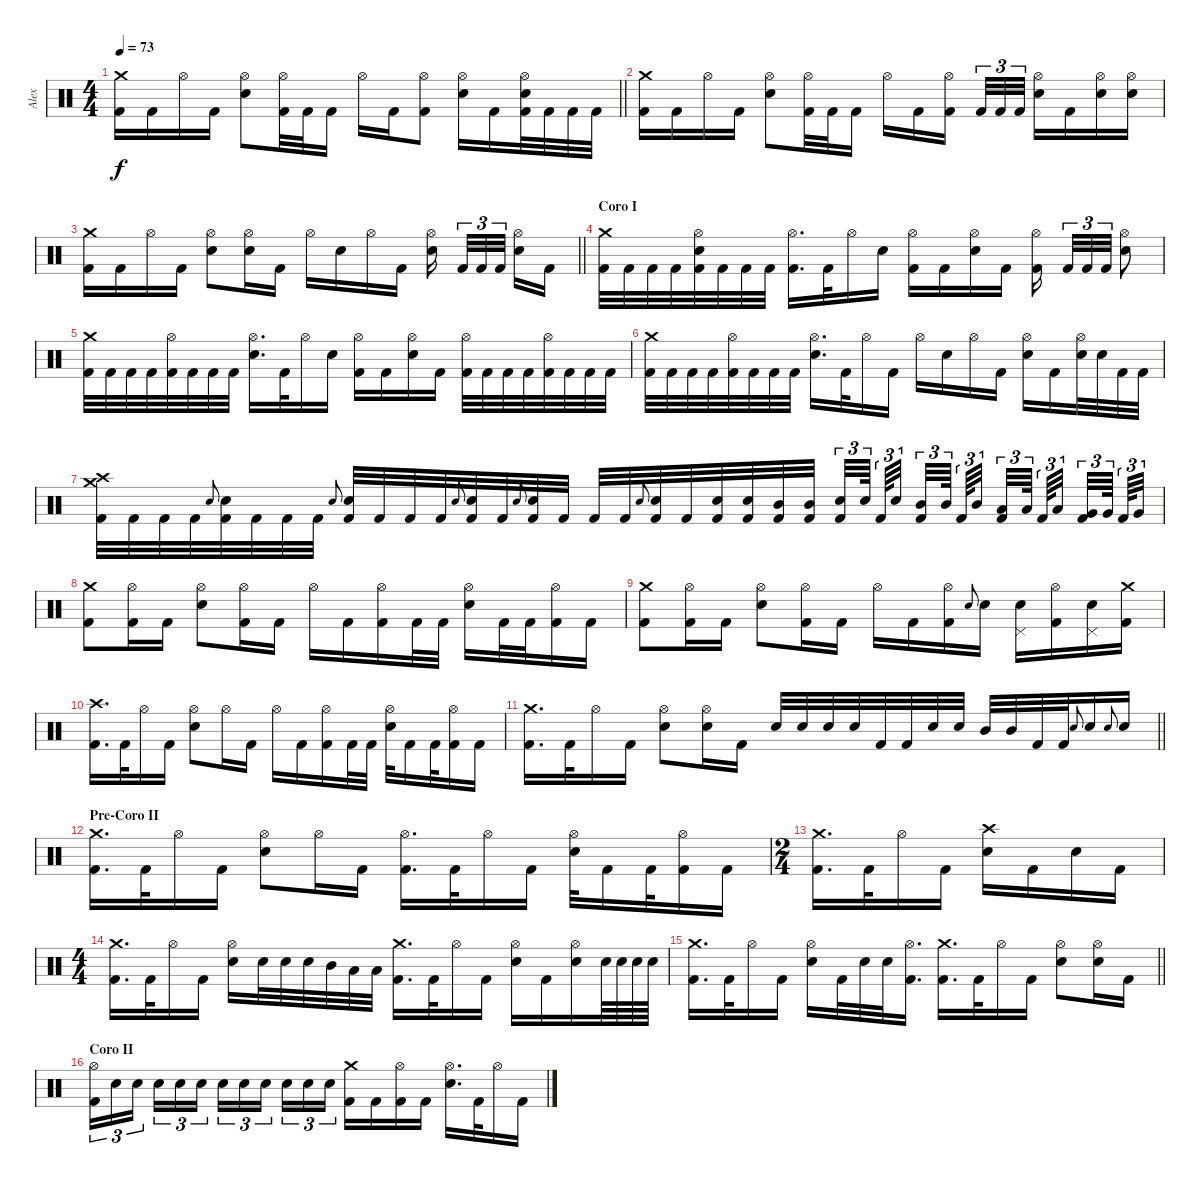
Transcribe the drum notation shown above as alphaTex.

\track ("Alex" "Alex") {instrument percussion}
\staff
\articulation defaults
\ts (4 4)
\tempo 73
\clef neutral
\barLineRight lightlight
\ks c
("Crash medium (hit)" "Kick (hit) 2").16{dy f} "Kick (hit) 2".16 "Hi-Hat (open)".16 "Kick (hit) 2".16 ("Hi-Hat (open)" "Electric Snare (hit)").8 ("Hi-Hat (open)" "Kick (hit) 2").32 "Kick (hit) 2".32 "Kick (hit) 2".16 "Hi-Hat (open)".16 "Kick (hit) 2".16 ("Hi-Hat (open)" "Kick (hit) 2").8 ("Hi-Hat (open)" "Electric Snare (hit)").16 "Kick (hit) 2".16 ("Hi-Hat (open)" "Electric Snare (hit)" "Kick (hit) 2").32 "Kick (hit) 2".32 "Kick (hit) 2".32 "Kick (hit) 2".32 |
("Crash medium (hit)" "Kick (hit) 2").16 "Kick (hit) 2".16 "Hi-Hat (open)".16 "Kick (hit) 2".16 ("Hi-Hat (open)" "Electric Snare (hit)").8 ("Hi-Hat (open)" "Kick (hit) 2").32 "Kick (hit) 2".32 "Kick (hit) 2".16 "Hi-Hat (open)".16 "Kick (hit) 2".16 ("Hi-Hat (open)" "Kick (hit) 2").16{beam splitsecondary} "Kick (hit) 2".32{tu (3 2)} "Kick (hit) 2".32{tu (3 2)} "Kick (hit) 2".32{tu (3 2)} ("Hi-Hat (open)" "Electric Snare (hit)").16 "Kick (hit) 2".16 ("Hi-Hat (open)" "Electric Snare (hit)").16 ("Hi-Hat (open)" "Electric Snare (hit)").16 |
\barLineRight lightlight
("Crash medium (hit)" "Kick (hit) 2").16 "Kick (hit) 2".16 "Hi-Hat (open)".16 "Kick (hit) 2".16 ("Hi-Hat (open)" "Electric Snare (hit)").8 ("Hi-Hat (open)" "Electric Snare (hit)").16 "Kick (hit) 2".16 "Hi-Hat (open)".16 "Electric Snare (hit)".16 "Hi-Hat (open)".16 "Kick (hit) 2".16 ("Hi-Hat (open)" "Electric Snare (hit)").16{beam splitsecondary} "Kick (hit) 2".32{tu (3 2)} "Kick (hit) 2".32{tu (3 2)} "Kick (hit) 2".32{tu (3 2) beam splitsecondary} ("Hi-Hat (open)" "Electric Snare (hit)").16 "Kick (hit) 2".16 |
\section ("" "Coro I")
("Crash medium (hit)" "Kick (hit) 2").32 "Kick (hit) 2".32 "Kick (hit) 2".32 "Kick (hit) 2".32 ("Hi-Hat (open)" "Electric Snare (hit)" "Kick (hit) 2").32 "Kick (hit) 2".32 "Kick (hit) 2".32 "Kick (hit) 2".32 ("Hi-Hat (open)" "Kick (hit) 2").16{d} "Kick (hit) 2".32 "Hi-Hat (open)".16 "Electric Snare (hit)".16 ("Hi-Hat (open)" "Kick (hit) 2").16 "Kick (hit) 2".16 ("Hi-Hat (open)" "Electric Snare (hit)").16 "Kick (hit) 2".16 ("Hi-Hat (open)" "Kick (hit) 2").16{beam splitsecondary} "Kick (hit) 2".32{tu (3 2)} "Kick (hit) 2".32{tu (3 2)} "Kick (hit) 2".32{tu (3 2)} ("Hi-Hat (open)" "Electric Snare (hit)").8 |
("Crash medium (hit)" "Kick (hit) 2").32 "Kick (hit) 2".32 "Kick (hit) 2".32 "Kick (hit) 2".32 ("Hi-Hat (open)" "Kick (hit) 2").32 "Kick (hit) 2".32 "Kick (hit) 2".32 "Kick (hit) 2".32 ("Hi-Hat (open)" "Electric Snare (hit)").16{d} "Kick (hit) 2".32 "Hi-Hat (open)".16 "Electric Snare (hit)".16 ("Hi-Hat (open)" "Kick (hit) 2").16 "Kick (hit) 2".16 ("Hi-Hat (open)" "Electric Snare (hit)").16 "Kick (hit) 2".16 ("Hi-Hat (open)" "Kick (hit) 2").32 "Kick (hit) 2".32 "Kick (hit) 2".32 "Kick (hit) 2".32 ("Hi-Hat (open)" "Kick (hit) 2").32 "Kick (hit) 2".32 "Kick (hit) 2".32 "Kick (hit) 2".32 |
("Crash medium (hit)" "Kick (hit) 2").32 "Kick (hit) 2".32 "Kick (hit) 2".32 "Kick (hit) 2".32 ("Hi-Hat (open)" "Kick (hit) 2").32 "Kick (hit) 2".32 "Kick (hit) 2".32 "Kick (hit) 2".32 ("Hi-Hat (open)" "Electric Snare (hit)").16{d} "Kick (hit) 2".32 "Hi-Hat (open)".16 "Kick (hit) 2".16 "Hi-Hat (open)".16 "Electric Snare (hit)".16 "Hi-Hat (open)".16 "Kick (hit) 2".16 ("Hi-Hat (open)" "Electric Snare (hit)").16 "Kick (hit) 2".16 ("Hi-Hat (open)" "Electric Snare (hit)").32 "Electric Snare (hit)".32 "Kick (hit) 2".32 "Kick (hit) 2".32 |
("Crash medium (hit)" "Crash high (hit)" "Kick (hit) 2").32 "Kick (hit) 2".32 "Kick (hit) 2".32 "Kick (hit) 2".32 "Electric Snare (hit)".8{gr onbeat} ("Electric Snare (hit)" "Kick (hit) 2").32 "Kick (hit) 2".32 "Kick (hit) 2".32 "Kick (hit) 2".32 "Electric Snare (hit)".8{gr onbeat} ("Electric Snare (hit)" "Kick (hit) 2").32 "Kick (hit) 2".32 "Kick (hit) 2".32 "Kick (hit) 2".32 "Electric Snare (hit)".8{gr onbeat} ("Electric Snare (hit)" "Kick (hit) 2").32 "Kick (hit) 2".32 "Electric Snare (hit)".8{gr onbeat} ("Electric Snare (hit)" "Kick (hit) 2").32 "Kick (hit) 2".32 "Kick (hit) 2".32 "Kick (hit) 2".32 "Electric Snare (hit)".8{gr onbeat} ("Electric Snare (hit)" "Kick (hit) 2").32 "Kick (hit) 2".32 ("Electric Snare (hit)" "Kick (hit) 2").32 ("Electric Snare (hit)" "Kick (hit) 2").32 ("Mid Tom (hit)" "Kick (hit) 2").32 ("Mid Tom (hit)" "Kick (hit) 2").32 ("Electric Snare (hit)" "Kick (hit) 2").32{tu (3 2)} "Electric Snare (hit)".64{tu (3 2) beam splitsecondary} "Kick (hit) 2".64{tu (3 2)} "Electric Snare (hit)".32{tu (3 2) beam splitsecondary} ("Mid Tom (hit)" "Kick (hit) 2").32{tu (3 2)} "Mid Tom (hit)".64{tu (3 2) beam splitsecondary} "Kick (hit) 2".64{tu (3 2)} "Mid Tom (hit)".32{tu (3 2) beam splitsecondary} ("Low Tom (hit)" "Kick (hit) 2").32{tu (3 2)} "Low Tom (hit)".64{tu (3 2) beam splitsecondary} "Kick (hit) 2".64{tu (3 2)} "Low Tom (hit)".32{tu (3 2) beam splitsecondary} ("Very Low Tom (hit)" "Kick (hit) 2").32{tu (3 2)} "Very Low Tom (hit)".64{tu (3 2) beam splitsecondary} "Kick (hit) 2".64{tu (3 2)} "Very Low Tom (hit)".32{tu (3 2)} |
("Crash medium (hit)" "Kick (hit) 2").8 ("Hi-Hat (open)" "Kick (hit) 2").16 "Kick (hit) 2".16 ("Hi-Hat (open)" "Electric Snare (hit)").8 ("Hi-Hat (open)" "Kick (hit) 2").16 "Kick (hit) 2".16 "Hi-Hat (open)".16 "Kick (hit) 2".16 ("Hi-Hat (open)" "Kick (hit) 2").16 "Kick (hit) 2".32 "Kick (hit) 2".32 ("Hi-Hat (open)" "Electric Snare (hit)").16 "Kick (hit) 2".32 "Kick (hit) 2".32 ("Hi-Hat (open)" "Kick (hit) 2").16 "Kick (hit) 2".16 |
("Crash medium (hit)" "Kick (hit) 2").8 ("Hi-Hat (open)" "Kick (hit) 2").16 "Kick (hit) 2".16 ("Hi-Hat (open)" "Electric Snare (hit)").8 ("Hi-Hat (open)" "Kick (hit) 2").16 "Kick (hit) 2".16 "Hi-Hat (open)".16 "Kick (hit) 2".16 ("Hi-Hat (open)" "Kick (hit) 2").16 "Electric Snare (hit)".8{gr onbeat} "Electric Snare (hit)".16 ("Pedal Hi-Hat (hit)" "Electric Snare (hit)").16 ("Hi-Hat (open)" "Kick (hit) 2").16 ("Pedal Hi-Hat (hit)" "Electric Snare (hit)").16 ("Crash medium (hit)" "Kick (hit) 2").16 |
("Crash high (hit)" "Kick (hit) 2").16{d} "Kick (hit) 2".32 "Hi-Hat (open)".16 "Kick (hit) 2".16 ("Hi-Hat (open)" "Electric Snare (hit)").8 "Hi-Hat (open)".16 "Kick (hit) 2".16 "Hi-Hat (open)".16 "Kick (hit) 2".16 ("Hi-Hat (open)" "Kick (hit) 2").16 "Kick (hit) 2".32 "Kick (hit) 2".32 ("Hi-Hat (open)" "Electric Snare (hit)").32 "Kick (hit) 2".16 "Kick (hit) 2".32 ("Hi-Hat (open)" "Kick (hit) 2").16 "Kick (hit) 2".16 |
\barLineRight lightlight
("Crash medium (hit)" "Kick (hit) 2").16{d} "Kick (hit) 2".32 "Hi-Hat (open)".16 "Kick (hit) 2".16 ("Hi-Hat (open)" "Electric Snare (hit)").8 ("Hi-Hat (open)" "Electric Snare (hit)").16 "Kick (hit) 2".16 "Electric Snare (hit)".32 "Electric Snare (hit)".32 "Electric Snare (hit)".32 "Electric Snare (hit)".32 "Kick (hit) 2".32 "Kick (hit) 2".32 "Electric Snare (hit)".32 "Electric Snare (hit)".32 "Mid Tom (hit)".32 "Mid Tom (hit)".32 "Kick (hit) 2".32 "Kick (hit) 2".32 "Electric Snare (hit)".8{gr onbeat} "Electric Snare (hit)".16 "Electric Snare (hit)".8{gr onbeat} "Electric Snare (hit)".16 |
\section ("" "Pre-Coro II")
("Crash medium (hit)" "Kick (hit) 2").16{d} "Kick (hit) 2".32 "Hi-Hat (open)".16 "Kick (hit) 2".16 ("Hi-Hat (open)" "Electric Snare (hit)").8 "Hi-Hat (open)".16 "Kick (hit) 2".16 ("Hi-Hat (open)" "Kick (hit) 2").16{d} "Kick (hit) 2".32 "Hi-Hat (open)".16 "Kick (hit) 2".16 ("Hi-Hat (open)" "Electric Snare (hit)").32 "Kick (hit) 2".16 "Kick (hit) 2".32 ("Hi-Hat (open)" "Kick (hit) 2").16 "Kick (hit) 2".16 |
\ts (2 4)
("Crash medium (hit)" "Kick (hit) 2").16{d} "Kick (hit) 2".32 "Hi-Hat (open)".16 "Kick (hit) 2".16 ("Crash high (hit)" "Electric Snare (hit)").16 "Kick (hit) 2".16 "Electric Snare (hit)".16 "Kick (hit) 2".16 |
\ts (4 4)
("Crash medium (hit)" "Kick (hit) 2").16{d} "Kick (hit) 2".32 "Hi-Hat (open)".16 "Kick (hit) 2".16 ("Hi-Hat (open)" "Electric Snare (hit)").16 "Electric Snare (hit)".32 "Electric Snare (hit)".32 "Electric Snare (hit)".32 "Mid Tom (hit)".32 "Low Tom (hit)".32 "Low Tom (hit)".32 ("Crash medium (hit)" "Kick (hit) 2").16{d} "Kick (hit) 2".32 "Hi-Hat (open)".16 "Kick (hit) 2".16 ("Hi-Hat (open)" "Electric Snare (hit)").16 "Kick (hit) 2".16 ("Hi-Hat (open)" "Electric Snare (hit)").16 "Electric Snare (hit)".64 "Electric Snare (hit)".64 "Electric Snare (hit)".64 "Electric Snare (hit)".64 |
\barLineRight lightlight
("Crash medium (hit)" "Kick (hit) 2").16{d} "Kick (hit) 2".32 "Hi-Hat (open)".16 "Kick (hit) 2".16 ("Hi-Hat (open)" "Electric Snare (hit)").16 "Kick (hit) 2".32 "Electric Snare (hit)".32 "Electric Snare (hit)".32 ("Hi-Hat (open)" "Kick (hit) 2").16{d} ("Crash medium (hit)" "Kick (hit) 2").16{d} "Kick (hit) 2".32 "Hi-Hat (open)".16 "Kick (hit) 2".16 ("Hi-Hat (open)" "Electric Snare (hit)").8 ("Hi-Hat (open)" "Electric Snare (hit)").16 "Kick (hit) 2".16 |
\section ("" "Coro II")
("Hi-Hat (open)" "Kick (hit) 2").16{tu (3 2)} "Electric Snare (hit)".16{tu (3 2)} "Electric Snare (hit)".16{tu (3 2) beam splitsecondary} "Electric Snare (hit)".16{tu (3 2)} "Electric Snare (hit)".16{tu (3 2)} "Electric Snare (hit)".16{tu (3 2)} "Electric Snare (hit)".16{tu (3 2)} "Electric Snare (hit)".16{tu (3 2)} "Electric Snare (hit)".16{tu (3 2) beam splitsecondary} "Electric Snare (hit)".16{tu (3 2)} "Electric Snare (hit)".16{tu (3 2)} "Electric Snare (hit)".16{tu (3 2)} ("Crash medium (hit)" "Kick (hit) 2").16 "Kick (hit) 2".16 ("Hi-Hat (open)" "Kick (hit) 2").16 "Kick (hit) 2".16 ("Hi-Hat (open)" "Electric Snare (hit)").16{d} "Kick (hit) 2".32 "Hi-Hat (open)".16 "Kick (hit) 2".16
